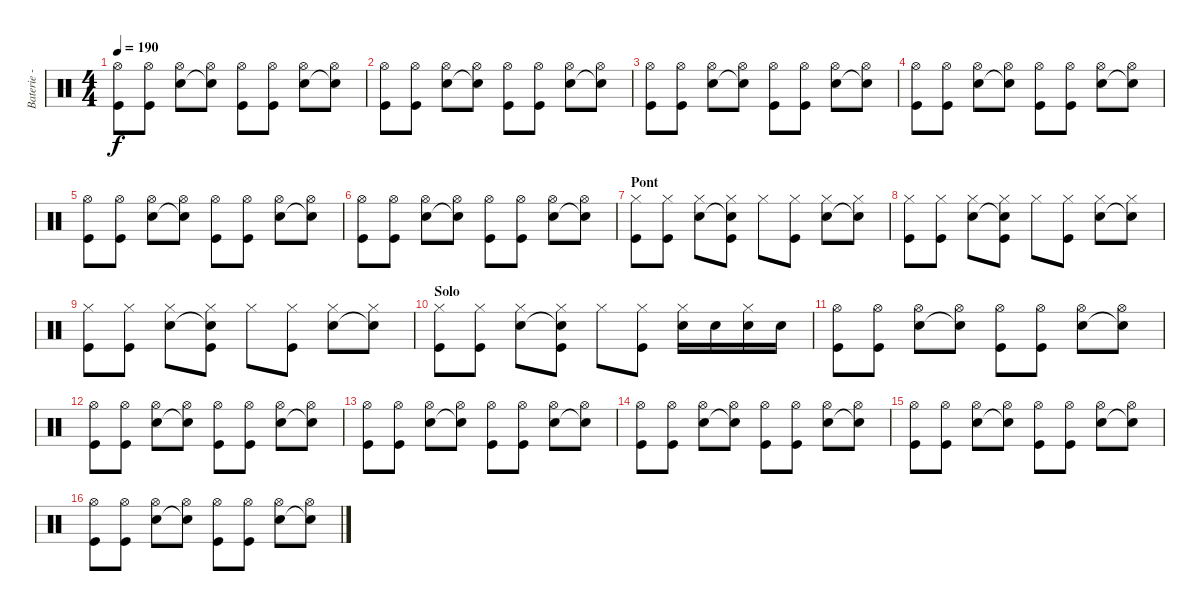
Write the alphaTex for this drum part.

\track ("Baterie - Guillaume" "Baterie - ") {instrument percussion}
\staff {score}
\articulation defaults
\ts (4 4)
\tempo 190
\clef neutral
\ks c
("Hi-Hat (open)" "Kick (hit)").8{dy f} ("Hi-Hat (open)" "Kick (hit)").8 ("Hi-Hat (open)" "Electric Snare (hit)").8 ("Hi-Hat (open)" "Snare (hit)"{t}).8 ("Hi-Hat (open)" "Kick (hit)").8 ("Hi-Hat (open)" "Kick (hit)").8 ("Hi-Hat (open)" "Electric Snare (hit)").8 ("Hi-Hat (open)" "Snare (hit)"{t}).8 |
("Hi-Hat (open)" "Kick (hit)").8 ("Hi-Hat (open)" "Kick (hit)").8 ("Hi-Hat (open)" "Electric Snare (hit)").8 ("Hi-Hat (open)" "Snare (hit)"{t}).8 ("Hi-Hat (open)" "Kick (hit)").8 ("Hi-Hat (open)" "Kick (hit)").8 ("Hi-Hat (open)" "Electric Snare (hit)").8 ("Hi-Hat (open)" "Snare (hit)"{t}).8 |
("Hi-Hat (open)" "Kick (hit)").8 ("Hi-Hat (open)" "Kick (hit)").8 ("Hi-Hat (open)" "Electric Snare (hit)").8 ("Hi-Hat (open)" "Snare (hit)"{t}).8 ("Hi-Hat (open)" "Kick (hit)").8 ("Hi-Hat (open)" "Kick (hit)").8 ("Hi-Hat (open)" "Electric Snare (hit)").8 ("Hi-Hat (open)" "Snare (hit)"{t}).8 |
("Hi-Hat (open)" "Kick (hit)").8 ("Hi-Hat (open)" "Kick (hit)").8 ("Hi-Hat (open)" "Electric Snare (hit)").8 ("Hi-Hat (open)" "Snare (hit)"{t}).8 ("Hi-Hat (open)" "Kick (hit)").8 ("Hi-Hat (open)" "Kick (hit)").8 ("Hi-Hat (open)" "Electric Snare (hit)").8 ("Hi-Hat (open)" "Snare (hit)"{t}).8 |
("Hi-Hat (open)" "Kick (hit)").8 ("Hi-Hat (open)" "Kick (hit)").8 ("Hi-Hat (open)" "Electric Snare (hit)").8 ("Hi-Hat (open)" "Snare (hit)"{t}).8 ("Hi-Hat (open)" "Kick (hit)").8 ("Hi-Hat (open)" "Kick (hit)").8 ("Hi-Hat (open)" "Electric Snare (hit)").8 ("Hi-Hat (open)" "Snare (hit)"{t}).8 |
("Hi-Hat (open)" "Kick (hit)").8 ("Hi-Hat (open)" "Kick (hit)").8 ("Hi-Hat (open)" "Electric Snare (hit)").8 ("Hi-Hat (open)" "Snare (hit)"{t}).8 ("Hi-Hat (open)" "Kick (hit)").8 ("Hi-Hat (open)" "Kick (hit)").8 ("Hi-Hat (open)" "Electric Snare (hit)").8 ("Hi-Hat (open)" "Snare (hit)"{t}).8 |
\section ("" "Pont")
("Hi-Hat (closed)" "Kick (hit)").8 ("Hi-Hat (closed)" "Kick (hit)").8 ("Hi-Hat (closed)" "Electric Snare (hit)").8 ("Hi-Hat (closed)" "Snare (hit)"{t} "Kick (hit)").8 "Hi-Hat (closed)".8 ("Hi-Hat (closed)" "Kick (hit)").8 ("Hi-Hat (closed)" "Electric Snare (hit)").8 ("Hi-Hat (closed)" "Snare (hit)"{t}).8 |
("Hi-Hat (closed)" "Kick (hit)").8 ("Hi-Hat (closed)" "Kick (hit)").8 ("Hi-Hat (closed)" "Electric Snare (hit)").8 ("Hi-Hat (closed)" "Snare (hit)"{t} "Kick (hit)").8 "Hi-Hat (closed)".8 ("Hi-Hat (closed)" "Kick (hit)").8 ("Hi-Hat (closed)" "Electric Snare (hit)").8 ("Hi-Hat (closed)" "Snare (hit)"{t}).8 |
("Hi-Hat (closed)" "Kick (hit)").8 ("Hi-Hat (closed)" "Kick (hit)").8 ("Hi-Hat (closed)" "Electric Snare (hit)").8 ("Hi-Hat (closed)" "Snare (hit)"{t} "Kick (hit)").8 "Hi-Hat (closed)".8 ("Hi-Hat (closed)" "Kick (hit)").8 ("Hi-Hat (closed)" "Electric Snare (hit)").8 ("Hi-Hat (closed)" "Snare (hit)"{t}).8 |
\section ("" "Solo")
("Hi-Hat (closed)" "Kick (hit)").8 ("Hi-Hat (closed)" "Kick (hit)").8 ("Hi-Hat (closed)" "Electric Snare (hit)").8 ("Hi-Hat (closed)" "Snare (hit)"{t} "Kick (hit)").8 "Hi-Hat (closed)".8 ("Hi-Hat (closed)" "Kick (hit)").8 ("Hi-Hat (closed)" "Electric Snare (hit)").16 "Electric Snare (hit)".16 ("Hi-Hat (closed)" "Electric Snare (hit)").16 "Electric Snare (hit)".16 |
("Hi-Hat (open)" "Kick (hit)").8 ("Hi-Hat (open)" "Kick (hit)").8 ("Hi-Hat (open)" "Electric Snare (hit)").8 ("Hi-Hat (open)" "Snare (hit)"{t}).8 ("Hi-Hat (open)" "Kick (hit)").8 ("Hi-Hat (open)" "Kick (hit)").8 ("Hi-Hat (open)" "Electric Snare (hit)").8 ("Hi-Hat (open)" "Snare (hit)"{t}).8 |
("Hi-Hat (open)" "Kick (hit)").8 ("Hi-Hat (open)" "Kick (hit)").8 ("Hi-Hat (open)" "Electric Snare (hit)").8 ("Hi-Hat (open)" "Snare (hit)"{t}).8 ("Hi-Hat (open)" "Kick (hit)").8 ("Hi-Hat (open)" "Kick (hit)").8 ("Hi-Hat (open)" "Electric Snare (hit)").8 ("Hi-Hat (open)" "Snare (hit)"{t}).8 |
("Hi-Hat (open)" "Kick (hit)").8 ("Hi-Hat (open)" "Kick (hit)").8 ("Hi-Hat (open)" "Electric Snare (hit)").8 ("Hi-Hat (open)" "Snare (hit)"{t}).8 ("Hi-Hat (open)" "Kick (hit)").8 ("Hi-Hat (open)" "Kick (hit)").8 ("Hi-Hat (open)" "Electric Snare (hit)").8 ("Hi-Hat (open)" "Snare (hit)"{t}).8 |
("Hi-Hat (open)" "Kick (hit)").8 ("Hi-Hat (open)" "Kick (hit)").8 ("Hi-Hat (open)" "Electric Snare (hit)").8 ("Hi-Hat (open)" "Snare (hit)"{t}).8 ("Hi-Hat (open)" "Kick (hit)").8 ("Hi-Hat (open)" "Kick (hit)").8 ("Hi-Hat (open)" "Electric Snare (hit)").8 ("Hi-Hat (open)" "Snare (hit)"{t}).8 |
("Hi-Hat (open)" "Kick (hit)").8 ("Hi-Hat (open)" "Kick (hit)").8 ("Hi-Hat (open)" "Electric Snare (hit)").8 ("Hi-Hat (open)" "Snare (hit)"{t}).8 ("Hi-Hat (open)" "Kick (hit)").8 ("Hi-Hat (open)" "Kick (hit)").8 ("Hi-Hat (open)" "Electric Snare (hit)").8 ("Hi-Hat (open)" "Snare (hit)"{t}).8 |
("Hi-Hat (open)" "Kick (hit)").8 ("Hi-Hat (open)" "Kick (hit)").8 ("Hi-Hat (open)" "Electric Snare (hit)").8 ("Hi-Hat (open)" "Snare (hit)"{t}).8 ("Hi-Hat (open)" "Kick (hit)").8 ("Hi-Hat (open)" "Kick (hit)").8 ("Hi-Hat (open)" "Electric Snare (hit)").8 ("Hi-Hat (open)" "Snare (hit)"{t}).8
